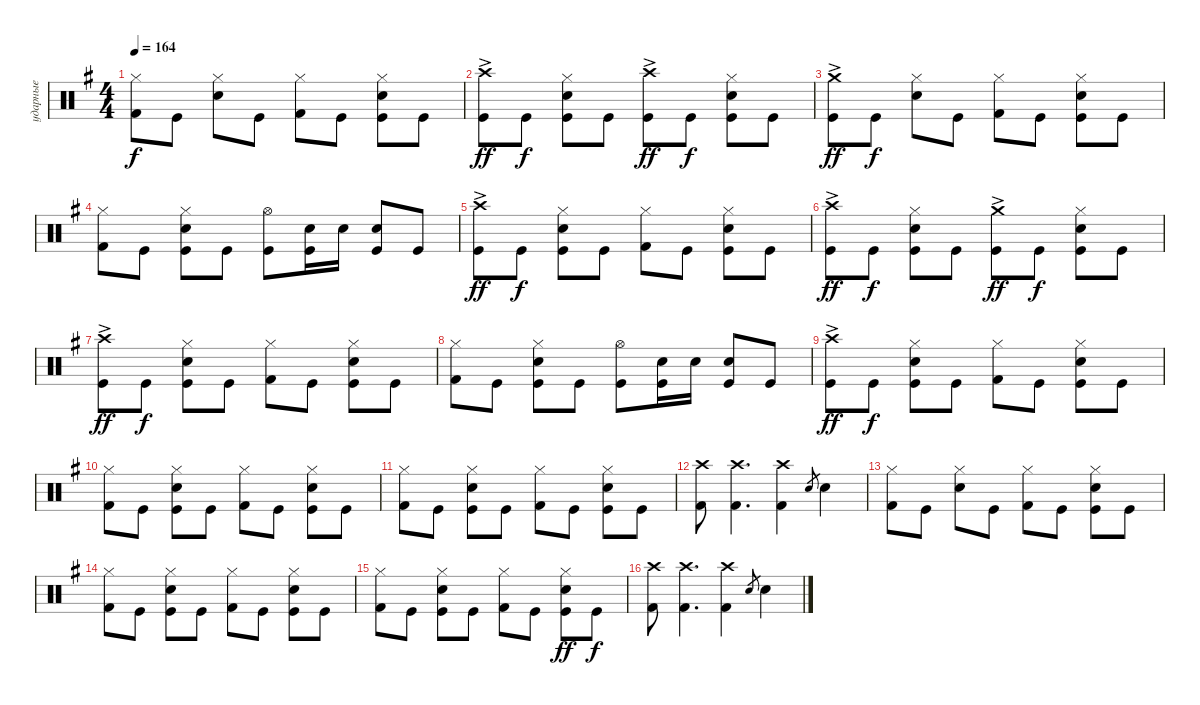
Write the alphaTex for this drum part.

\track ("ударные" "ударные") {instrument percussion}
\staff {score}
\articulation defaults
\ts (4 4)
\tempo 164
\clef neutral
\ks eminor
("Hi-Hat (closed)" "Kick (hit) 2").8{dy f} "Kick (hit)".8 ("Snare (hit) 2" "Hi-Hat (closed)").8 "Kick (hit)".8 ("Hi-Hat (closed)" "Kick (hit) 2").8 "Kick (hit)".8 ("Hi-Hat (closed)" "Kick (hit)" "Snare (hit) 2").8 "Kick (hit)".8 |
("Kick (hit)" "Crash high (hit)"{ac}).8{dy ff} "Kick (hit)".8{dy f} ("Hi-Hat (closed)" "Kick (hit)" "Snare (hit) 2").8 "Kick (hit)".8 ("Kick (hit)" "Crash high (hit)"{ac}).8{dy ff} "Kick (hit)".8{dy f} ("Hi-Hat (closed)" "Kick (hit)" "Snare (hit) 2").8 "Kick (hit)".8 |
("Kick (hit)" "Crash medium (hit)"{ac}).8{dy ff} "Kick (hit)".8{dy f} ("Snare (hit) 2" "Hi-Hat (closed)").8 "Kick (hit)".8 ("Hi-Hat (closed)" "Kick (hit) 2").8 "Kick (hit)".8 ("Hi-Hat (closed)" "Kick (hit)" "Snare (hit) 2").8 "Kick (hit)".8 |
("Hi-Hat (closed)" "Kick (hit) 2").8 "Kick (hit)".8 ("Hi-Hat (closed)" "Kick (hit)" "Snare (hit) 2").8 "Kick (hit)".8 ("Kick (hit)" "Hi-Hat (open)").8 ("Kick (hit)" "Snare (hit) 2").16 "Snare (hit) 2".16 ("Kick (hit)" "Snare (hit) 2").8 "Kick (hit)".8 |
("Kick (hit)" "Crash high (hit)"{ac}).8{dy ff} "Kick (hit)".8{dy f} ("Hi-Hat (closed)" "Kick (hit)" "Snare (hit) 2").8 "Kick (hit)".8 ("Hi-Hat (closed)" "Kick (hit) 2").8 "Kick (hit)".8 ("Hi-Hat (closed)" "Kick (hit)" "Snare (hit) 2").8 "Kick (hit)".8 |
("Kick (hit)" "Crash high (hit)"{ac}).8{dy ff} "Kick (hit)".8{dy f} ("Hi-Hat (closed)" "Kick (hit)" "Snare (hit) 2").8 "Kick (hit)".8 ("Kick (hit)" "Crash medium (hit)"{ac}).8{dy ff} "Kick (hit)".8{dy f} ("Kick (hit)" "Snare (hit) 2" "Hi-Hat (closed)").8 "Kick (hit)".8 |
("Kick (hit)" "Crash high (hit)"{ac}).8{dy ff} "Kick (hit)".8{dy f} ("Hi-Hat (closed)" "Kick (hit)" "Snare (hit) 2").8 "Kick (hit)".8 ("Hi-Hat (closed)" "Kick (hit) 2").8 "Kick (hit)".8 ("Hi-Hat (closed)" "Kick (hit)" "Snare (hit) 2").8 "Kick (hit)".8 |
("Hi-Hat (closed)" "Kick (hit) 2").8 "Kick (hit)".8 ("Hi-Hat (closed)" "Kick (hit)" "Snare (hit) 2").8 "Kick (hit)".8 ("Kick (hit)" "Hi-Hat (open)").8 ("Kick (hit)" "Snare (hit) 2").16 "Snare (hit) 2".16 ("Kick (hit)" "Snare (hit) 2").8 "Kick (hit)".8 |
("Kick (hit)" "Crash high (hit)"{ac}).8{dy ff} "Kick (hit)".8{dy f} ("Hi-Hat (closed)" "Kick (hit)" "Snare (hit) 2").8 "Kick (hit)".8 ("Hi-Hat (closed)" "Kick (hit) 2").8 "Kick (hit)".8 ("Hi-Hat (closed)" "Kick (hit)" "Snare (hit) 2").8 "Kick (hit)".8 |
("Hi-Hat (closed)" "Kick (hit) 2").8 "Kick (hit)".8 ("Snare (hit) 2" "Hi-Hat (closed)" "Kick (hit)").8 "Kick (hit)".8 ("Hi-Hat (closed)" "Kick (hit) 2").8 "Kick (hit)".8 ("Hi-Hat (closed)" "Kick (hit)" "Snare (hit) 2").8 "Kick (hit)".8 |
("Hi-Hat (closed)" "Kick (hit) 2").8 "Kick (hit)".8 ("Snare (hit) 2" "Hi-Hat (closed)" "Kick (hit)").8 "Kick (hit)".8 ("Hi-Hat (closed)" "Kick (hit) 2").8 "Kick (hit)".8 ("Hi-Hat (closed)" "Kick (hit)" "Snare (hit) 2").8 "Kick (hit)".8 |
("Crash high (hit)" "Kick (hit) 2").8 ("Crash high (hit)" "Kick (hit) 2").4{d} ("Crash high (hit)" "Kick (hit) 2").4 "Snare (hit) 2".8{gr} "Snare (hit) 2".4 |
("Hi-Hat (closed)" "Kick (hit) 2").8 "Kick (hit)".8 ("Snare (hit) 2" "Hi-Hat (closed)").8 "Kick (hit)".8 ("Hi-Hat (closed)" "Kick (hit) 2").8 "Kick (hit)".8 ("Hi-Hat (closed)" "Kick (hit)" "Snare (hit) 2").8 "Kick (hit)".8 |
("Hi-Hat (closed)" "Kick (hit) 2").8 "Kick (hit)".8 ("Hi-Hat (closed)" "Kick (hit)" "Snare (hit) 2").8 "Kick (hit)".8 ("Hi-Hat (closed)" "Kick (hit) 2").8 "Kick (hit)".8 ("Kick (hit)" "Snare (hit) 2" "Hi-Hat (closed)").8 "Kick (hit)".8 |
("Hi-Hat (closed)" "Kick (hit) 2").8 "Kick (hit)".8 ("Hi-Hat (closed)" "Kick (hit)" "Snare (hit) 2").8 "Kick (hit)".8 ("Hi-Hat (closed)" "Kick (hit) 2").8 "Kick (hit)".8 ("Snare (hit) 2" "Kick (hit)" "Hi-Hat (closed)").8{dy ff} "Kick (hit)".8{dy f} |
("Crash high (hit)" "Kick (hit) 2").8 ("Crash high (hit)" "Kick (hit) 2").4{d} ("Crash high (hit)" "Kick (hit) 2").4 "Snare (hit) 2".8{gr} "Snare (hit) 2".4
